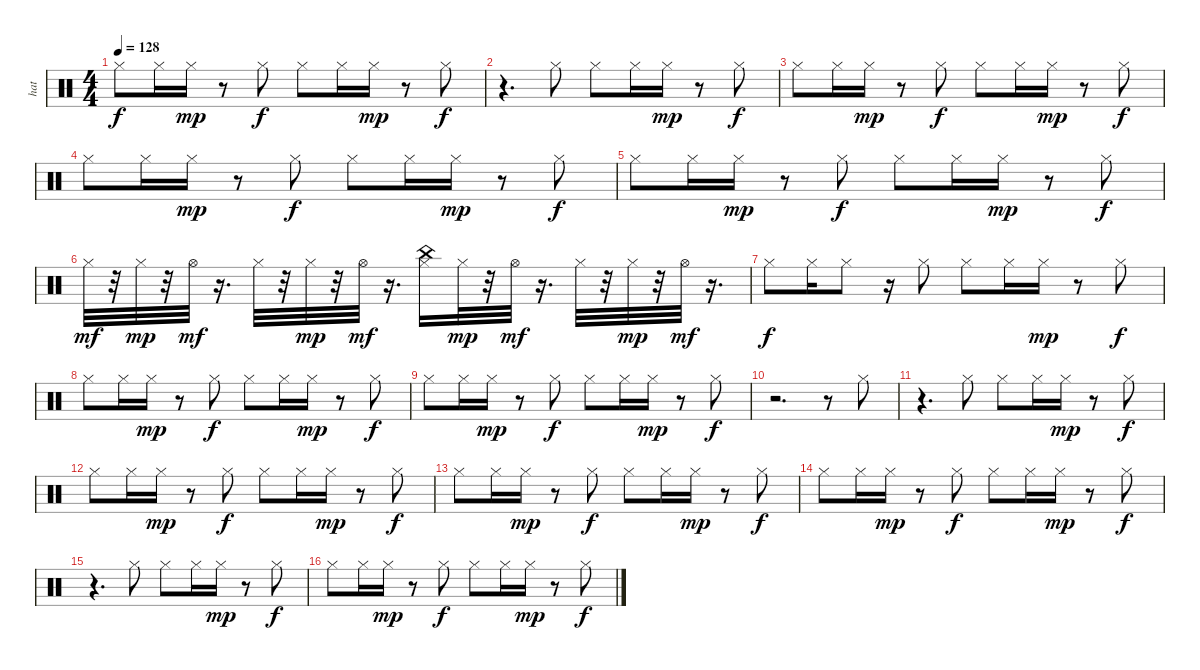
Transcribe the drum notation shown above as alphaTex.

\track ("hat" "hat") {instrument percussion}
\staff {score}
\articulation defaults
\ts (4 4)
\tempo 128
\clef neutral
\ks c "Hi-Hat (closed)".8{dy f} "Hi-Hat (closed)".16 "Hi-Hat (closed)".16{dy mp}
r.8 "Hi-Hat (closed)".8{dy f} "Hi-Hat (closed)".8 "Hi-Hat (closed)".16 "Hi-Hat (closed)".16{dy mp} r.8 "Hi-Hat (closed)".8{dy f} |
r.4{d} "Hi-Hat (closed)".8 "Hi-Hat (closed)".8 "Hi-Hat (closed)".16 "Hi-Hat (closed)".16{dy mp} r.8 "Hi-Hat (closed)".8{dy f} |
"Hi-Hat (closed)".8 "Hi-Hat (closed)".16 "Hi-Hat (closed)".16{dy mp} r.8 "Hi-Hat (closed)".8{dy f} "Hi-Hat (closed)".8 "Hi-Hat (closed)".16 "Hi-Hat (closed)".16{dy mp} r.8 "Hi-Hat (closed)".8{dy f} |
"Hi-Hat (closed)".8 "Hi-Hat (closed)".16 "Hi-Hat (closed)".16{dy mp} r.8 "Hi-Hat (closed)".8{dy f} "Hi-Hat (closed)".8 "Hi-Hat (closed)".16 "Hi-Hat (closed)".16{dy mp} r.8 "Hi-Hat (closed)".8{dy f} |
"Hi-Hat (closed)".8 "Hi-Hat (closed)".16 "Hi-Hat (closed)".16{dy mp} r.8 "Hi-Hat (closed)".8{dy f} "Hi-Hat (closed)".8 "Hi-Hat (closed)".16 "Hi-Hat (closed)".16{dy mp} r.8 "Hi-Hat (closed)".8{dy f} |
"Hi-Hat (closed)".32{dy mf} r.32 "Hi-Hat (closed)".32{dy mp} r.32 "Hi-Hat (open)".32{dy mf} r.16{d} "Hi-Hat (closed)".32 r.32 "Hi-Hat (closed)".32{dy mp} r.32 "Hi-Hat (open)".32{dy mf} r.16{d} ("China (hit)" "Hi-Hat (closed)").16 "Hi-Hat (closed)".32{dy mp} r.32 "Hi-Hat (open)".32{dy mf} r.16{d} "Hi-Hat (closed)".32 r.32 "Hi-Hat (closed)".32{dy mp} r.32 "Hi-Hat (open)".32{dy mf} r.16{d} |
"Hi-Hat (closed)".8{dy f} "Hi-Hat (closed)".16 "Hi-Hat (closed)".8 r.16 "Hi-Hat (closed)".8 "Hi-Hat (closed)".8 "Hi-Hat (closed)".16 "Hi-Hat (closed)".16{dy mp} r.8 "Hi-Hat (closed)".8{dy f} |
"Hi-Hat (closed)".8 "Hi-Hat (closed)".16 "Hi-Hat (closed)".16{dy mp} r.8 "Hi-Hat (closed)".8{dy f} "Hi-Hat (closed)".8 "Hi-Hat (closed)".16 "Hi-Hat (closed)".16{dy mp} r.8 "Hi-Hat (closed)".8{dy f} |
"Hi-Hat (closed)".8 "Hi-Hat (closed)".16 "Hi-Hat (closed)".16{dy mp} r.8 "Hi-Hat (closed)".8{dy f} "Hi-Hat (closed)".8 "Hi-Hat (closed)".16 "Hi-Hat (closed)".16{dy mp} r.8 "Hi-Hat (closed)".8{dy f} |
r.2{d} r.8 "Hi-Hat (closed)".8 |
r.4{d} "Hi-Hat (closed)".8 "Hi-Hat (closed)".8 "Hi-Hat (closed)".16 "Hi-Hat (closed)".16{dy mp} r.8 "Hi-Hat (closed)".8{dy f} |
"Hi-Hat (closed)".8 "Hi-Hat (closed)".16 "Hi-Hat (closed)".16{dy mp} r.8 "Hi-Hat (closed)".8{dy f} "Hi-Hat (closed)".8 "Hi-Hat (closed)".16 "Hi-Hat (closed)".16{dy mp} r.8 "Hi-Hat (closed)".8{dy f} |
"Hi-Hat (closed)".8 "Hi-Hat (closed)".16 "Hi-Hat (closed)".16{dy mp} r.8 "Hi-Hat (closed)".8{dy f} "Hi-Hat (closed)".8 "Hi-Hat (closed)".16 "Hi-Hat (closed)".16{dy mp} r.8 "Hi-Hat (closed)".8{dy f} |
"Hi-Hat (closed)".8 "Hi-Hat (closed)".16 "Hi-Hat (closed)".16{dy mp} r.8 "Hi-Hat (closed)".8{dy f} "Hi-Hat (closed)".8 "Hi-Hat (closed)".16 "Hi-Hat (closed)".16{dy mp} r.8 "Hi-Hat (closed)".8{dy f} |
r.4{d} "Hi-Hat (closed)".8 "Hi-Hat (closed)".8 "Hi-Hat (closed)".16 "Hi-Hat (closed)".16{dy mp} r.8 "Hi-Hat (closed)".8{dy f} |
"Hi-Hat (closed)".8 "Hi-Hat (closed)".16 "Hi-Hat (closed)".16{dy mp} r.8 "Hi-Hat (closed)".8{dy f} "Hi-Hat (closed)".8 "Hi-Hat (closed)".16 "Hi-Hat (closed)".16{dy mp} r.8 "Hi-Hat (closed)".8{dy f}
